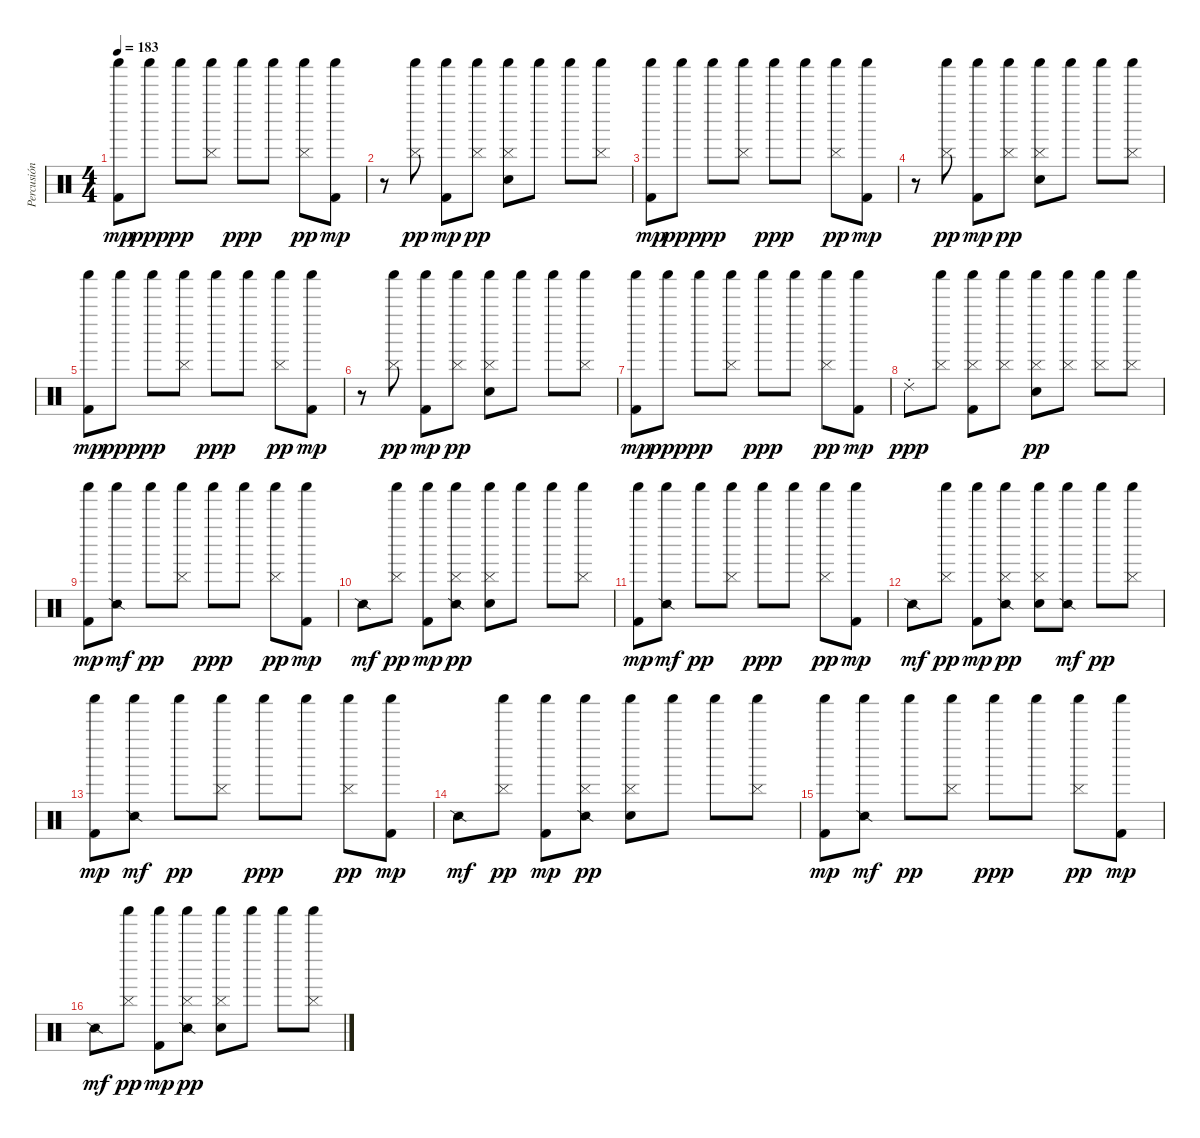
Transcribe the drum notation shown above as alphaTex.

\track ("Percusión" "Percusión") {instrument percussion}
\staff {score}
\articulation defaults
\ts (4 4)
\tempo 183
\clef neutral
\ks c
("Shaker (hit)" "Kick (hit) 2").8{dy mp} "Shaker (hit)".8{dy ppp} "Shaker (hit)".8{dy pp} ("Shaker (hit)" "Cymbal (hit)").8 "Shaker (hit)".8{dy ppp} "Shaker (hit)".8 ("Shaker (hit)" "Cymbal (hit)").8{dy pp} ("Shaker (hit)" "Kick (hit) 2").8{dy mp} |
r.8 ("Shaker (hit)" "Cymbal (hit)").8{dy pp} ("Shaker (hit)" "Kick (hit) 2").8{dy mp} ("Shaker (hit)" "Cymbal (hit)").8{dy pp} ("Shaker (hit)" "Electric Snare (hit)" "Cymbal (hit)").8 "Shaker (hit)".8 "Shaker (hit)".8 ("Shaker (hit)" "Cymbal (hit)").8 |
("Shaker (hit)" "Kick (hit) 2").8{dy mp} "Shaker (hit)".8{dy ppp} "Shaker (hit)".8{dy pp} ("Shaker (hit)" "Cymbal (hit)").8 "Shaker (hit)".8{dy ppp} "Shaker (hit)".8 ("Shaker (hit)" "Cymbal (hit)").8{dy pp} ("Shaker (hit)" "Kick (hit) 2").8{dy mp} |
r.8 ("Shaker (hit)" "Cymbal (hit)").8{dy pp} ("Shaker (hit)" "Kick (hit) 2").8{dy mp} ("Shaker (hit)" "Cymbal (hit)").8{dy pp} ("Shaker (hit)" "Electric Snare (hit)" "Cymbal (hit)").8 "Shaker (hit)".8 "Shaker (hit)".8 ("Shaker (hit)" "Cymbal (hit)").8 |
("Shaker (hit)" "Kick (hit) 2").8{dy mp} "Shaker (hit)".8{dy ppp} "Shaker (hit)".8{dy pp} ("Shaker (hit)" "Cymbal (hit)").8 "Shaker (hit)".8{dy ppp} "Shaker (hit)".8 ("Shaker (hit)" "Cymbal (hit)").8{dy pp} ("Shaker (hit)" "Kick (hit) 2").8{dy mp} |
r.8 ("Shaker (hit)" "Cymbal (hit)").8{dy pp} ("Shaker (hit)" "Kick (hit) 2").8{dy mp} ("Shaker (hit)" "Cymbal (hit)").8{dy pp} ("Shaker (hit)" "Electric Snare (hit)" "Cymbal (hit)").8 "Shaker (hit)".8 "Shaker (hit)".8 ("Shaker (hit)" "Cymbal (hit)").8 |
("Shaker (hit)" "Kick (hit) 2").8{dy mp} "Shaker (hit)".8{dy ppp} "Shaker (hit)".8{dy pp} ("Shaker (hit)" "Cymbal (hit)").8 "Shaker (hit)".8{dy ppp} "Shaker (hit)".8 ("Shaker (hit)" "Cymbal (hit)").8{dy pp} ("Shaker (hit)" "Kick (hit) 2").8{dy mp} |
"Ride (choke) 2".8{dy ppp} ("Shaker (hit)" "Cymbal (hit)").8 ("Shaker (hit)" "Kick (hit) 2" "Cymbal (hit)").8 ("Shaker (hit)" "Cymbal (hit)").8 ("Shaker (hit)" "Electric Snare (hit)" "Cymbal (hit)").8{dy pp} ("Shaker (hit)" "Cymbal (hit)").8 ("Shaker (hit)" "Cymbal (hit)").8 ("Shaker (hit)" "Cymbal (hit)").8 |
("Shaker (hit)" "Kick (hit) 2").8{dy mp volume 6} ("Shaker (hit)" "Snare (side stick) 2").8{dy mf} "Shaker (hit)".8{dy pp} ("Shaker (hit)" "Cymbal (hit)").8 "Shaker (hit)".8{dy ppp} "Shaker (hit)".8 ("Shaker (hit)" "Cymbal (hit)").8{dy pp} ("Shaker (hit)" "Kick (hit) 2").8{dy mp} |
"Snare (side stick) 2".8{dy mf} ("Shaker (hit)" "Cymbal (hit)").8{dy pp} ("Shaker (hit)" "Kick (hit) 2").8{dy mp} ("Shaker (hit)" "Snare (side stick) 2" "Cymbal (hit)").8{dy pp} ("Shaker (hit)" "Electric Snare (hit)" "Cymbal (hit)").8 "Shaker (hit)".8 "Shaker (hit)".8 ("Shaker (hit)" "Cymbal (hit)").8 |
("Shaker (hit)" "Kick (hit) 2").8{dy mp} ("Shaker (hit)" "Snare (side stick) 2").8{dy mf} "Shaker (hit)".8{dy pp} ("Shaker (hit)" "Cymbal (hit)").8 "Shaker (hit)".8{dy ppp} "Shaker (hit)".8 ("Shaker (hit)" "Cymbal (hit)").8{dy pp} ("Shaker (hit)" "Kick (hit) 2").8{dy mp} |
"Snare (side stick) 2".8{dy mf} ("Shaker (hit)" "Cymbal (hit)").8{dy pp} ("Shaker (hit)" "Kick (hit) 2").8{dy mp} ("Shaker (hit)" "Snare (side stick) 2" "Cymbal (hit)").8{dy pp} ("Shaker (hit)" "Electric Snare (hit)" "Cymbal (hit)").8 ("Shaker (hit)" "Snare (side stick) 2").8{dy mf} "Shaker (hit)".8{dy pp} ("Shaker (hit)" "Cymbal (hit)").8 |
("Shaker (hit)" "Kick (hit) 2").8{dy mp volume 0} ("Shaker (hit)" "Snare (side stick) 2").8{dy mf} "Shaker (hit)".8{dy pp} ("Shaker (hit)" "Cymbal (hit)").8 "Shaker (hit)".8{dy ppp} "Shaker (hit)".8 ("Shaker (hit)" "Cymbal (hit)").8{dy pp} ("Shaker (hit)" "Kick (hit) 2").8{dy mp} |
"Snare (side stick) 2".8{dy mf} ("Shaker (hit)" "Cymbal (hit)").8{dy pp} ("Shaker (hit)" "Kick (hit) 2").8{dy mp} ("Shaker (hit)" "Snare (side stick) 2" "Cymbal (hit)").8{dy pp} ("Shaker (hit)" "Electric Snare (hit)" "Cymbal (hit)").8 "Shaker (hit)".8 "Shaker (hit)".8 ("Shaker (hit)" "Cymbal (hit)").8 |
("Shaker (hit)" "Kick (hit) 2").8{dy mp} ("Shaker (hit)" "Snare (side stick) 2").8{dy mf} "Shaker (hit)".8{dy pp} ("Shaker (hit)" "Cymbal (hit)").8 "Shaker (hit)".8{dy ppp} "Shaker (hit)".8 ("Shaker (hit)" "Cymbal (hit)").8{dy pp} ("Shaker (hit)" "Kick (hit) 2").8{dy mp} |
"Snare (side stick) 2".8{dy mf} ("Shaker (hit)" "Cymbal (hit)").8{dy pp} ("Shaker (hit)" "Kick (hit) 2").8{dy mp} ("Shaker (hit)" "Snare (side stick) 2" "Cymbal (hit)").8{dy pp} ("Shaker (hit)" "Electric Snare (hit)" "Cymbal (hit)").8 "Shaker (hit)".8 "Shaker (hit)".8 ("Shaker (hit)" "Cymbal (hit)").8
